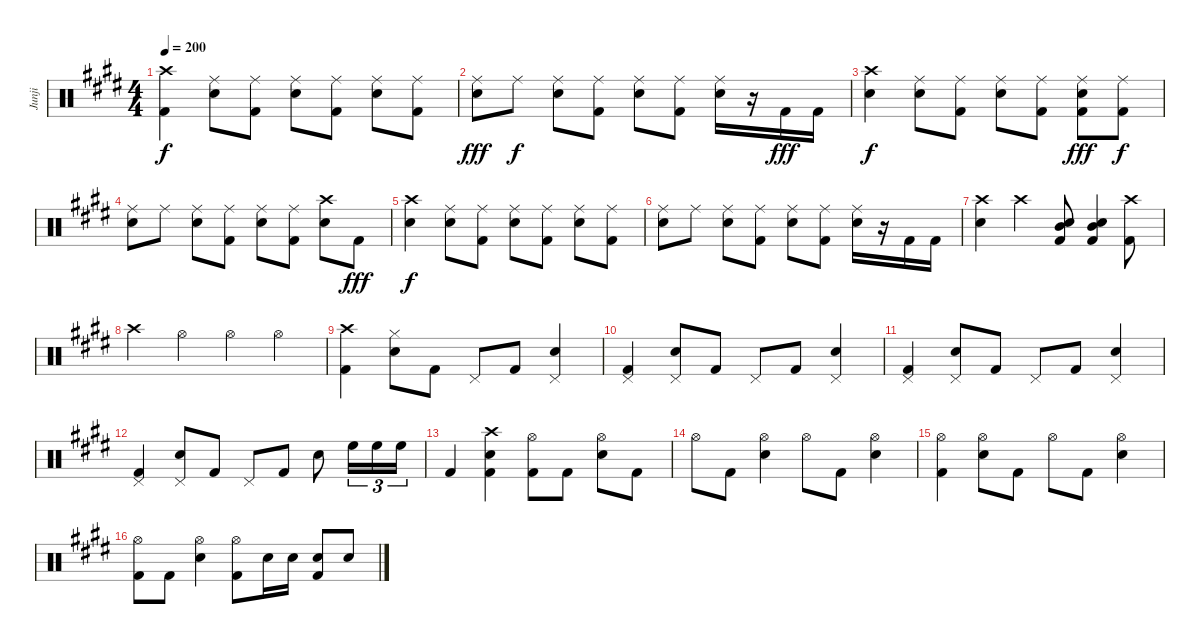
\track ("Junji" "Junji") {instrument percussion}
\staff {score}
\articulation defaults
\ts (4 4)
\tempo 200
\clef neutral
\ks e
("Crash high (hit)" "Kick (hit) 2").4{dy f} ("Ride (middle)" "Snare (hit) 2").8 ("Ride (middle)" "Kick (hit) 2").8 ("Ride (middle)" "Snare (hit) 2").8 ("Ride (middle)" "Kick (hit) 2").8 ("Ride (middle)" "Snare (hit) 2").8 ("Ride (middle)" "Kick (hit) 2").8 |
("Ride (middle)" "Snare (hit) 2").8{dy fff} "Ride (middle)".8{dy f} ("Ride (middle)" "Snare (hit) 2").8 ("Ride (middle)" "Kick (hit) 2").8 ("Ride (middle)" "Snare (hit) 2").8 ("Ride (middle)" "Kick (hit) 2").8 ("Ride (middle)" "Snare (hit) 2").16 r.16 "Kick (hit) 2".16{dy fff} "Kick (hit) 2".16 |
("Crash high (hit)" "Snare (hit) 2").4{dy f} ("Ride (middle)" "Snare (hit) 2").8 ("Ride (middle)" "Kick (hit) 2").8 ("Ride (middle)" "Snare (hit) 2").8 ("Ride (middle)" "Kick (hit) 2").8 ("Ride (middle)" "Snare (hit) 2" "Kick (hit) 2").8{dy fff} ("Ride (middle)" "Kick (hit) 2").8{dy f} |
("Ride (middle)" "Snare (hit) 2").8 "Ride (middle)".8 ("Ride (middle)" "Snare (hit) 2").8 ("Ride (middle)" "Kick (hit) 2").8 ("Ride (middle)" "Snare (hit) 2").8 ("Ride (middle)" "Kick (hit) 2").8 ("Crash high (hit)" "Snare (hit) 2").8 "Kick (hit) 2".8{dy fff} |
("Crash high (hit)" "Snare (hit) 2").4{dy f} ("Ride (middle)" "Snare (hit) 2").8 ("Ride (middle)" "Kick (hit) 2").8 ("Ride (middle)" "Snare (hit) 2").8 ("Ride (middle)" "Kick (hit) 2").8 ("Ride (middle)" "Snare (hit) 2").8 ("Ride (middle)" "Kick (hit) 2").8 |
("Ride (middle)" "Snare (hit) 2").8 "Ride (middle)".8 ("Ride (middle)" "Snare (hit) 2").8 ("Ride (middle)" "Kick (hit) 2").8 ("Ride (middle)" "Snare (hit) 2").8 ("Ride (middle)" "Kick (hit) 2").8 ("Ride (middle)" "Snare (hit) 2").16 r.16 "Kick (hit) 2".16 "Kick (hit) 2".16 |
("Crash high (hit)" "Snare (hit) 2").4 "Crash high (hit)".4 ("Mid Tom (hit)" "Snare (hit) 2" "Kick (hit) 2").8 ("Mid Tom (hit)" "Snare (hit) 2" "Kick (hit) 2").4 ("Crash high (hit)" "Kick (hit) 2").8 |
"Crash high (hit)".4 "Hi-Hat (open)".4 "Hi-Hat (open)".4 "Hi-Hat (open)".4 |
("Crash high (hit)" "Kick (hit) 2").4 ("Hi-Hat (closed)" "Snare (hit) 2").8 "Kick (hit) 2".8 "Pedal Hi-Hat (hit)".8 "Kick (hit) 2".8 ("Pedal Hi-Hat (hit)" "Snare (hit) 2").4 |
("Pedal Hi-Hat (hit)" "Kick (hit) 2").4 ("Pedal Hi-Hat (hit)" "Snare (hit) 2").8 "Kick (hit) 2".8 "Pedal Hi-Hat (hit)".8 "Kick (hit) 2".8 ("Pedal Hi-Hat (hit)" "Snare (hit) 2").4 |
("Pedal Hi-Hat (hit)" "Kick (hit) 2").4 ("Pedal Hi-Hat (hit)" "Snare (hit) 2").8 "Kick (hit) 2".8 "Pedal Hi-Hat (hit)".8 "Kick (hit) 2".8 ("Pedal Hi-Hat (hit)" "Snare (hit) 2").4 |
("Pedal Hi-Hat (hit)" "Kick (hit) 2").4 ("Pedal Hi-Hat (hit)" "Snare (hit) 2").8 "Kick (hit) 2".8 "Pedal Hi-Hat (hit)".8 "Kick (hit) 2".8 "Snare (hit) 2".8 "High Floor Tom (hit)".16{tu (3 2)} "High Floor Tom (hit)".16{tu (3 2)} "High Floor Tom (hit)".16{tu (3 2)} |
"Kick (hit) 2".4 ("Crash high (hit)" "Snare (hit) 2" "Kick (hit) 2").4 ("Hi-Hat (open)" "Kick (hit) 2").8 "Kick (hit) 2".8 ("Hi-Hat (open)" "Snare (hit) 2").8 "Kick (hit) 2".8 |
"Hi-Hat (open)".8 "Kick (hit) 2".8 ("Hi-Hat (open)" "Snare (hit) 2").4 "Hi-Hat (open)".8 "Kick (hit) 2".8 ("Hi-Hat (open)" "Snare (hit) 2").4 |
("Hi-Hat (open)" "Kick (hit) 2").4 ("Hi-Hat (open)" "Snare (hit) 2").8 "Kick (hit) 2".8 "Hi-Hat (open)".8 "Kick (hit) 2".8 ("Hi-Hat (open)" "Snare (hit) 2").4 |
("Hi-Hat (open)" "Kick (hit) 2").8 "Kick (hit) 2".8 ("Hi-Hat (open)" "Snare (hit) 2").4 ("Hi-Hat (open)" "Kick (hit) 2").8 "Snare (hit) 2".16 "Snare (hit) 2".16 ("Snare (hit) 2" "Kick (hit) 2").8 "Snare (hit) 2".8
